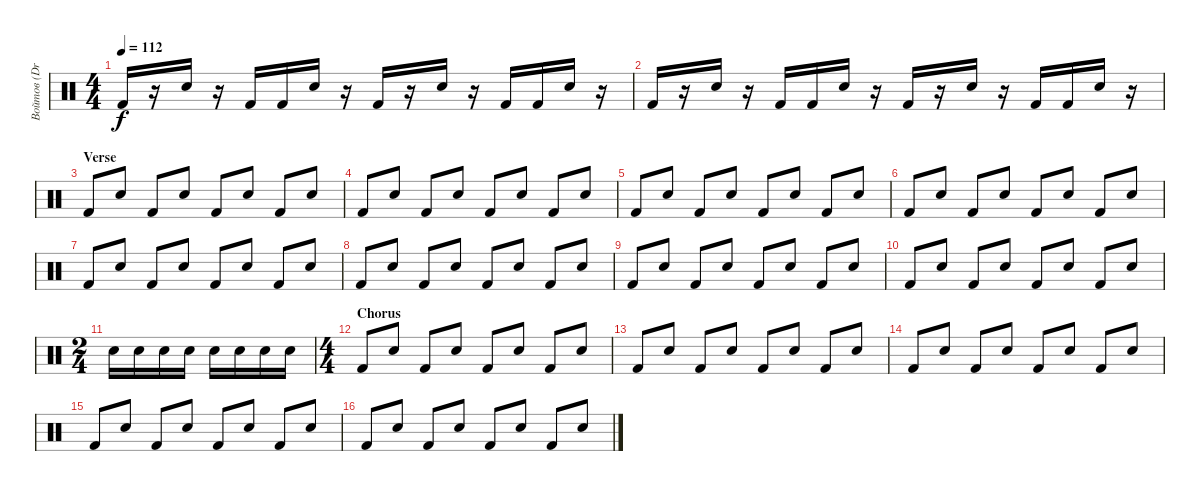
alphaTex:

\track ("Войтов (Drums)" "Войтов (Dr") {instrument percussion}
\staff {score}
\articulation defaults
\ts (4 4)
\tempo 112
\clef neutral
\ks c "Kick (hit) 2".16{dy f}
r.16 "Electric Snare (hit)".16 r.16 "Kick (hit) 2".16 "Kick (hit) 2".16 "Electric Snare (hit)".16 r.16 "Kick (hit) 2".16 r.16 "Electric Snare (hit)".16 r.16 "Kick (hit) 2".16 "Kick (hit) 2".16 "Electric Snare (hit)".16 r.16 |
"Kick (hit) 2".16 r.16 "Electric Snare (hit)".16 r.16 "Kick (hit) 2".16 "Kick (hit) 2".16 "Electric Snare (hit)".16 r.16 "Kick (hit) 2".16 r.16 "Electric Snare (hit)".16 r.16 "Kick (hit) 2".16 "Kick (hit) 2".16 "Electric Snare (hit)".16 r.16 |
\section ("" "Verse")
"Kick (hit) 2".8 "Electric Snare (hit)".8 "Kick (hit) 2".8 "Electric Snare (hit)".8 "Kick (hit) 2".8 "Electric Snare (hit)".8 "Kick (hit) 2".8 "Electric Snare (hit)".8 |
"Kick (hit) 2".8 "Electric Snare (hit)".8 "Kick (hit) 2".8 "Electric Snare (hit)".8 "Kick (hit) 2".8 "Electric Snare (hit)".8 "Kick (hit) 2".8 "Electric Snare (hit)".8 |
"Kick (hit) 2".8 "Electric Snare (hit)".8 "Kick (hit) 2".8 "Electric Snare (hit)".8 "Kick (hit) 2".8 "Electric Snare (hit)".8 "Kick (hit) 2".8 "Electric Snare (hit)".8 |
"Kick (hit) 2".8 "Electric Snare (hit)".8 "Kick (hit) 2".8 "Electric Snare (hit)".8 "Kick (hit) 2".8 "Electric Snare (hit)".8 "Kick (hit) 2".8 "Electric Snare (hit)".8 |
"Kick (hit) 2".8 "Electric Snare (hit)".8 "Kick (hit) 2".8 "Electric Snare (hit)".8 "Kick (hit) 2".8 "Electric Snare (hit)".8 "Kick (hit) 2".8 "Electric Snare (hit)".8 |
"Kick (hit) 2".8 "Electric Snare (hit)".8 "Kick (hit) 2".8 "Electric Snare (hit)".8 "Kick (hit) 2".8 "Electric Snare (hit)".8 "Kick (hit) 2".8 "Electric Snare (hit)".8 |
"Kick (hit) 2".8 "Electric Snare (hit)".8 "Kick (hit) 2".8 "Electric Snare (hit)".8 "Kick (hit) 2".8 "Electric Snare (hit)".8 "Kick (hit) 2".8 "Electric Snare (hit)".8 |
"Kick (hit) 2".8 "Electric Snare (hit)".8 "Kick (hit) 2".8 "Electric Snare (hit)".8 "Kick (hit) 2".8 "Electric Snare (hit)".8 "Kick (hit) 2".8 "Electric Snare (hit)".8 |
\ts (2 4)
"Electric Snare (hit)".16 "Electric Snare (hit)".16 "Electric Snare (hit)".16 "Electric Snare (hit)".16 "Electric Snare (hit)".16 "Electric Snare (hit)".16 "Electric Snare (hit)".16 "Electric Snare (hit)".16 |
\ts (4 4)
\section ("" "Chorus")
"Kick (hit) 2".8 "Electric Snare (hit)".8 "Kick (hit) 2".8 "Electric Snare (hit)".8 "Kick (hit) 2".8 "Electric Snare (hit)".8 "Kick (hit) 2".8 "Electric Snare (hit)".8 |
"Kick (hit) 2".8 "Electric Snare (hit)".8 "Kick (hit) 2".8 "Electric Snare (hit)".8 "Kick (hit) 2".8 "Electric Snare (hit)".8 "Kick (hit) 2".8 "Electric Snare (hit)".8 |
"Kick (hit) 2".8 "Electric Snare (hit)".8 "Kick (hit) 2".8 "Electric Snare (hit)".8 "Kick (hit) 2".8 "Electric Snare (hit)".8 "Kick (hit) 2".8 "Electric Snare (hit)".8 |
"Kick (hit) 2".8 "Electric Snare (hit)".8 "Kick (hit) 2".8 "Electric Snare (hit)".8 "Kick (hit) 2".8 "Electric Snare (hit)".8 "Kick (hit) 2".8 "Electric Snare (hit)".8 |
"Kick (hit) 2".8 "Electric Snare (hit)".8 "Kick (hit) 2".8 "Electric Snare (hit)".8 "Kick (hit) 2".8 "Electric Snare (hit)".8 "Kick (hit) 2".8 "Electric Snare (hit)".8
